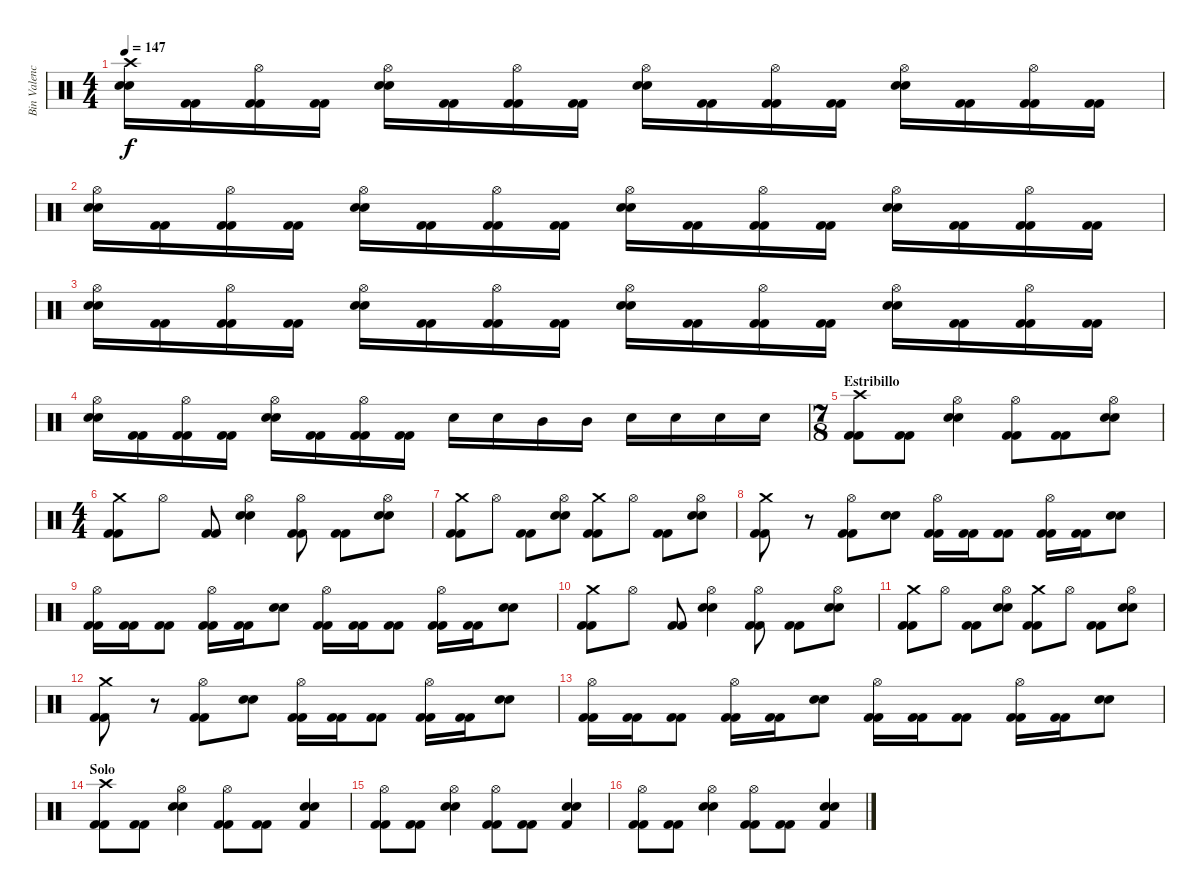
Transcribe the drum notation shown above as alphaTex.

\track ("Bin Valencia (Bateria)" "Bin Valenc") {instrument percussion}
\staff {score}
\articulation defaults
\ts (4 4)
\tempo 147
\clef neutral
\ks c
("Crash high (hit)" "Snare (hit) 2" "Snare (hit) 2").16{dy f} ("Kick (hit) 2" "Kick (hit) 2").16 ("Hi-Hat (open)" "Kick (hit) 2" "Kick (hit) 2").16 ("Kick (hit) 2" "Kick (hit) 2").16 ("Hi-Hat (open)" "Snare (hit) 2" "Snare (hit) 2").16 ("Kick (hit) 2" "Kick (hit) 2").16 ("Hi-Hat (open)" "Kick (hit) 2" "Kick (hit) 2").16 ("Kick (hit) 2" "Kick (hit) 2").16 ("Hi-Hat (open)" "Snare (hit) 2" "Snare (hit) 2").16 ("Kick (hit) 2" "Kick (hit) 2").16 ("Hi-Hat (open)" "Kick (hit) 2" "Kick (hit) 2").16 ("Kick (hit) 2" "Kick (hit) 2").16 ("Hi-Hat (open)" "Snare (hit) 2" "Snare (hit) 2").16 ("Kick (hit) 2" "Kick (hit) 2").16 ("Hi-Hat (open)" "Kick (hit) 2" "Kick (hit) 2").16 ("Kick (hit) 2" "Kick (hit) 2").16 |
("Hi-Hat (open)" "Snare (hit) 2" "Snare (hit) 2").16 ("Kick (hit) 2" "Kick (hit) 2").16 ("Hi-Hat (open)" "Kick (hit) 2" "Kick (hit) 2").16 ("Kick (hit) 2" "Kick (hit) 2").16 ("Hi-Hat (open)" "Snare (hit) 2" "Snare (hit) 2").16 ("Kick (hit) 2" "Kick (hit) 2").16 ("Hi-Hat (open)" "Kick (hit) 2" "Kick (hit) 2").16 ("Kick (hit) 2" "Kick (hit) 2").16 ("Hi-Hat (open)" "Snare (hit) 2" "Snare (hit) 2").16 ("Kick (hit) 2" "Kick (hit) 2").16 ("Hi-Hat (open)" "Kick (hit) 2" "Kick (hit) 2").16 ("Kick (hit) 2" "Kick (hit) 2").16 ("Hi-Hat (open)" "Snare (hit) 2" "Snare (hit) 2").16 ("Kick (hit) 2" "Kick (hit) 2").16 ("Hi-Hat (open)" "Kick (hit) 2" "Kick (hit) 2").16 ("Kick (hit) 2" "Kick (hit) 2").16 |
("Hi-Hat (open)" "Snare (hit) 2" "Snare (hit) 2").16 ("Kick (hit) 2" "Kick (hit) 2").16 ("Hi-Hat (open)" "Kick (hit) 2" "Kick (hit) 2").16 ("Kick (hit) 2" "Kick (hit) 2").16 ("Hi-Hat (open)" "Snare (hit) 2" "Snare (hit) 2").16 ("Kick (hit) 2" "Kick (hit) 2").16 ("Hi-Hat (open)" "Kick (hit) 2" "Kick (hit) 2").16 ("Kick (hit) 2" "Kick (hit) 2").16 ("Hi-Hat (open)" "Snare (hit) 2" "Snare (hit) 2").16 ("Kick (hit) 2" "Kick (hit) 2").16 ("Hi-Hat (open)" "Kick (hit) 2" "Kick (hit) 2").16 ("Kick (hit) 2" "Kick (hit) 2").16 ("Hi-Hat (open)" "Snare (hit) 2" "Snare (hit) 2").16 ("Kick (hit) 2" "Kick (hit) 2").16 ("Hi-Hat (open)" "Kick (hit) 2" "Kick (hit) 2").16 ("Kick (hit) 2" "Kick (hit) 2").16 |
("Hi-Hat (open)" "Snare (hit) 2" "Snare (hit) 2").16 ("Kick (hit) 2" "Kick (hit) 2").16 ("Hi-Hat (open)" "Kick (hit) 2" "Kick (hit) 2").16 ("Kick (hit) 2" "Kick (hit) 2").16 ("Hi-Hat (open)" "Snare (hit) 2" "Snare (hit) 2").16 ("Kick (hit) 2" "Kick (hit) 2").16 ("Hi-Hat (open)" "Kick (hit) 2" "Kick (hit) 2").16 ("Kick (hit) 2" "Kick (hit) 2").16 "Snare (hit) 2".16 "Snare (hit) 2".16 "Mid Tom (hit)".16 "Mid Tom (hit)".16 "Snare (hit) 2".16 "Snare (hit) 2".16 "Snare (hit) 2".16 "Snare (hit) 2".16 |
\ts (7 8)
\section ("" "Estribillo")
("Crash high (hit)" "Kick (hit) 2" "Kick (hit) 2").8 ("Kick (hit) 2" "Kick (hit) 2").8 ("Hi-Hat (open)" "Snare (hit) 2" "Snare (hit) 2").4 ("Hi-Hat (open)" "Kick (hit) 2" "Kick (hit) 2").8 ("Kick (hit) 2" "Kick (hit) 2").8 ("Hi-Hat (open)" "Snare (hit) 2" "Snare (hit) 2").8 |
\ts (4 4)
("Crash medium (hit)" "Kick (hit) 2" "Kick (hit) 2").8 "Hi-Hat (open)".8 ("Kick (hit) 2" "Kick (hit) 2").8 ("Hi-Hat (open)" "Snare (hit) 2" "Snare (hit) 2").4 ("Hi-Hat (open)" "Kick (hit) 2" "Kick (hit) 2").8 ("Kick (hit) 2" "Kick (hit) 2").8 ("Hi-Hat (open)" "Snare (hit) 2" "Snare (hit) 2").8 |
("Crash medium (hit)" "Kick (hit) 2" "Kick (hit) 2").8 "Hi-Hat (open)".8 ("Kick (hit) 2" "Kick (hit) 2").8 ("Hi-Hat (open)" "Snare (hit) 2" "Snare (hit) 2").8 ("Crash medium (hit)" "Kick (hit) 2" "Kick (hit) 2").8 "Hi-Hat (open)".8 ("Kick (hit) 2" "Kick (hit) 2").8 ("Hi-Hat (open)" "Snare (hit) 2" "Snare (hit) 2").8 |
("Crash medium (hit)" "Kick (hit) 2" "Kick (hit) 2").8 r.8 ("Hi-Hat (open)" "Kick (hit) 2" "Kick (hit) 2").8 ("Snare (hit) 2" "Snare (hit) 2").8 ("Hi-Hat (open)" "Kick (hit) 2" "Kick (hit) 2").16 ("Kick (hit) 2" "Kick (hit) 2").16 ("Kick (hit) 2" "Kick (hit) 2").8 ("Hi-Hat (open)" "Kick (hit) 2" "Kick (hit) 2").16 ("Kick (hit) 2" "Kick (hit) 2").16 ("Snare (hit) 2" "Snare (hit) 2").8 |
("Hi-Hat (open)" "Kick (hit) 2" "Kick (hit) 2").16 ("Kick (hit) 2" "Kick (hit) 2").16 ("Kick (hit) 2" "Kick (hit) 2").8 ("Hi-Hat (open)" "Kick (hit) 2" "Kick (hit) 2").16 ("Kick (hit) 2" "Kick (hit) 2").16 ("Snare (hit) 2" "Snare (hit) 2").8 ("Hi-Hat (open)" "Kick (hit) 2" "Kick (hit) 2").16 ("Kick (hit) 2" "Kick (hit) 2").16 ("Kick (hit) 2" "Kick (hit) 2").8 ("Hi-Hat (open)" "Kick (hit) 2" "Kick (hit) 2").16 ("Kick (hit) 2" "Kick (hit) 2").16 ("Snare (hit) 2" "Snare (hit) 2").8 |
("Crash medium (hit)" "Kick (hit) 2" "Kick (hit) 2").8 "Hi-Hat (open)".8 ("Kick (hit) 2" "Kick (hit) 2").8 ("Hi-Hat (open)" "Snare (hit) 2" "Snare (hit) 2").4 ("Hi-Hat (open)" "Kick (hit) 2" "Kick (hit) 2").8 ("Kick (hit) 2" "Kick (hit) 2").8 ("Hi-Hat (open)" "Snare (hit) 2" "Snare (hit) 2").8 |
("Crash medium (hit)" "Kick (hit) 2" "Kick (hit) 2").8 "Hi-Hat (open)".8 ("Kick (hit) 2" "Kick (hit) 2").8 ("Hi-Hat (open)" "Snare (hit) 2" "Snare (hit) 2").8 ("Crash medium (hit)" "Kick (hit) 2" "Kick (hit) 2").8 "Hi-Hat (open)".8 ("Kick (hit) 2" "Kick (hit) 2").8 ("Hi-Hat (open)" "Snare (hit) 2" "Snare (hit) 2").8 |
("Crash medium (hit)" "Kick (hit) 2" "Kick (hit) 2").8 r.8 ("Hi-Hat (open)" "Kick (hit) 2" "Kick (hit) 2").8 ("Snare (hit) 2" "Snare (hit) 2").8 ("Hi-Hat (open)" "Kick (hit) 2" "Kick (hit) 2").16 ("Kick (hit) 2" "Kick (hit) 2").16 ("Kick (hit) 2" "Kick (hit) 2").8 ("Hi-Hat (open)" "Kick (hit) 2" "Kick (hit) 2").16 ("Kick (hit) 2" "Kick (hit) 2").16 ("Snare (hit) 2" "Snare (hit) 2").8 |
("Hi-Hat (open)" "Kick (hit) 2" "Kick (hit) 2").16 ("Kick (hit) 2" "Kick (hit) 2").16 ("Kick (hit) 2" "Kick (hit) 2").8 ("Hi-Hat (open)" "Kick (hit) 2" "Kick (hit) 2").16 ("Kick (hit) 2" "Kick (hit) 2").16 ("Snare (hit) 2" "Snare (hit) 2").8 ("Hi-Hat (open)" "Kick (hit) 2" "Kick (hit) 2").16 ("Kick (hit) 2" "Kick (hit) 2").16 ("Kick (hit) 2" "Kick (hit) 2").8 ("Hi-Hat (open)" "Kick (hit) 2" "Kick (hit) 2").16 ("Kick (hit) 2" "Kick (hit) 2").16 ("Snare (hit) 2" "Snare (hit) 2").8 |
\section ("" "Solo")
("Crash high (hit)" "Kick (hit) 2" "Kick (hit) 2").8 ("Kick (hit) 2" "Kick (hit) 2").8 ("Hi-Hat (open)" "Snare (hit) 2" "Snare (hit) 2").4 ("Hi-Hat (open)" "Kick (hit) 2" "Kick (hit) 2").8 ("Kick (hit) 2" "Kick (hit) 2").8 ("Kick (hit) 2" "Snare (hit) 2" "Snare (hit) 2").4 |
("Hi-Hat (open)" "Kick (hit) 2" "Kick (hit) 2").8 ("Kick (hit) 2" "Kick (hit) 2").8 ("Hi-Hat (open)" "Snare (hit) 2" "Snare (hit) 2").4 ("Hi-Hat (open)" "Kick (hit) 2" "Kick (hit) 2").8 ("Kick (hit) 2" "Kick (hit) 2").8 ("Kick (hit) 2" "Snare (hit) 2" "Snare (hit) 2").4 |
("Hi-Hat (open)" "Kick (hit) 2" "Kick (hit) 2").8 ("Kick (hit) 2" "Kick (hit) 2").8 ("Hi-Hat (open)" "Snare (hit) 2" "Snare (hit) 2").4 ("Hi-Hat (open)" "Kick (hit) 2" "Kick (hit) 2").8 ("Kick (hit) 2" "Kick (hit) 2").8 ("Kick (hit) 2" "Snare (hit) 2" "Snare (hit) 2").4
